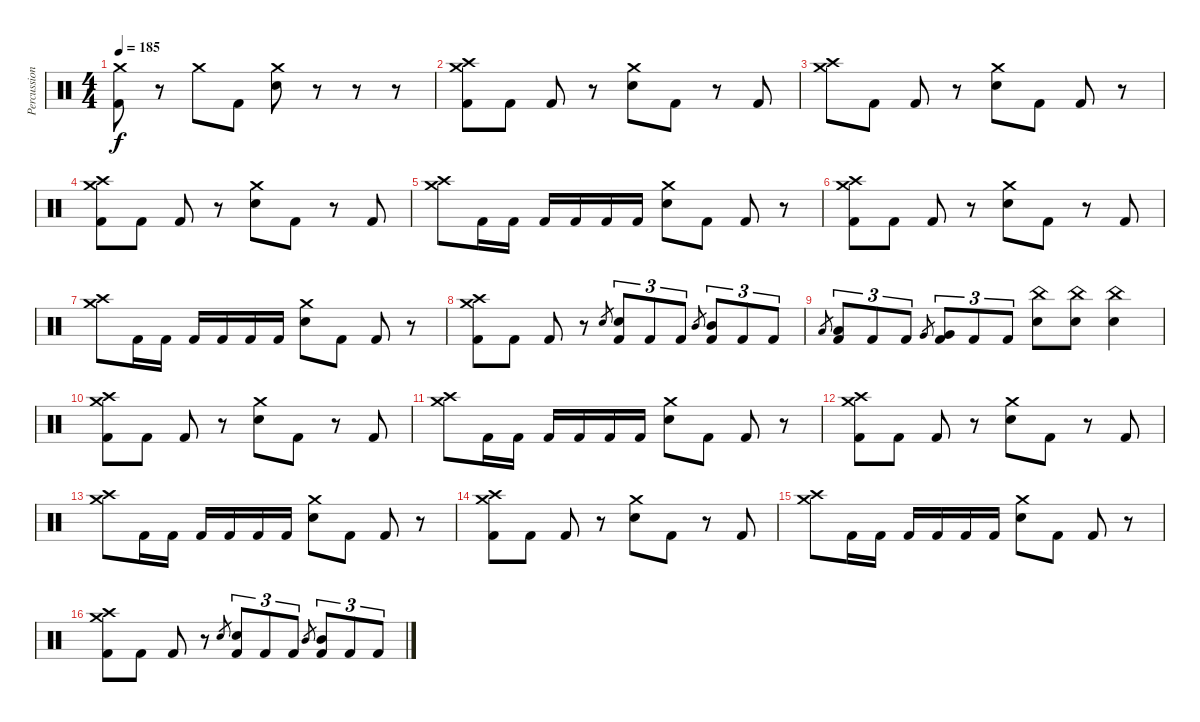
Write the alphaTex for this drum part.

\track ("Percussion" "Percussion") {instrument percussion}
\staff {score}
\articulation defaults
\ts (4 4)
\tempo 185
\clef neutral
\ks c
("Kick (hit) 2" "Crash medium (hit)").8{dy f} r.8 "Crash medium (hit)".8 "Kick (hit) 2".8 ("Electric Snare (hit)" "Crash medium (hit)").8 r.8 r.8 r.8 |
("Kick (hit) 2" "Crash medium (hit)" "Crash high (hit)").8 "Kick (hit) 2".8 "Kick (hit) 2".8 r.8 ("Electric Snare (hit)" "Crash medium (hit)").8 "Kick (hit) 2".8 r.8 "Kick (hit) 2".8 |
("Crash medium (hit)" "Crash high (hit)").8 "Kick (hit) 2".8 "Kick (hit) 2".8 r.8 ("Electric Snare (hit)" "Crash medium (hit)").8 "Kick (hit) 2".8 "Kick (hit) 2".8 r.8 |
("Kick (hit) 2" "Crash medium (hit)" "Crash high (hit)").8 "Kick (hit) 2".8 "Kick (hit) 2".8 r.8 ("Electric Snare (hit)" "Crash medium (hit)").8 "Kick (hit) 2".8 r.8 "Kick (hit) 2".8 |
("Crash medium (hit)" "Crash high (hit)").8 "Kick (hit) 2".16 "Kick (hit) 2".16 "Kick (hit) 2".16 "Kick (hit) 2".16 "Kick (hit) 2".16 "Kick (hit) 2".16 ("Electric Snare (hit)" "Crash medium (hit)").8 "Kick (hit) 2".8 "Kick (hit) 2".8 r.8 |
("Kick (hit) 2" "Crash medium (hit)" "Crash high (hit)").8 "Kick (hit) 2".8 "Kick (hit) 2".8 r.8 ("Electric Snare (hit)" "Crash medium (hit)").8 "Kick (hit) 2".8 r.8 "Kick (hit) 2".8 |
("Crash medium (hit)" "Crash high (hit)").8 "Kick (hit) 2".16 "Kick (hit) 2".16 "Kick (hit) 2".16 "Kick (hit) 2".16 "Kick (hit) 2".16 "Kick (hit) 2".16 ("Electric Snare (hit)" "Crash medium (hit)").8 "Kick (hit) 2".8 "Kick (hit) 2".8 r.8 |
("Kick (hit) 2" "Crash medium (hit)" "Crash high (hit)").8 "Kick (hit) 2".8 "Kick (hit) 2".8 r.8 "Electric Snare (hit)".8{gr} ("Kick (hit) 2" "Electric Snare (hit)").8{tu (3 2)} "Kick (hit) 2".8{tu (3 2)} "Kick (hit) 2".8{tu (3 2)} "Mid Tom (hit)".8{gr} ("Kick (hit) 2" "Mid Tom (hit)").8{tu (3 2)} "Kick (hit) 2".8{tu (3 2)} "Kick (hit) 2".8{tu (3 2)} |
"Low Tom (hit)".8{gr} ("Kick (hit) 2" "Low Tom (hit)").8{tu (3 2)} "Kick (hit) 2".8{tu (3 2)} "Kick (hit) 2".8{tu (3 2)} "Very Low Tom (hit)".8{gr} ("Kick (hit) 2" "Very Low Tom (hit)").8{tu (3 2)} "Kick (hit) 2".8{tu (3 2)} "Kick (hit) 2".8{tu (3 2)} ("Electric Snare (hit)" "China (hit)").8 ("Electric Snare (hit)" "China (hit)").8 ("Electric Snare (hit)" "China (hit)").4 |
("Kick (hit) 2" "Crash medium (hit)" "Crash high (hit)").8 "Kick (hit) 2".8 "Kick (hit) 2".8 r.8 ("Electric Snare (hit)" "Crash medium (hit)").8 "Kick (hit) 2".8 r.8 "Kick (hit) 2".8 |
("Crash medium (hit)" "Crash high (hit)").8 "Kick (hit) 2".16 "Kick (hit) 2".16 "Kick (hit) 2".16 "Kick (hit) 2".16 "Kick (hit) 2".16 "Kick (hit) 2".16 ("Electric Snare (hit)" "Crash medium (hit)").8 "Kick (hit) 2".8 "Kick (hit) 2".8 r.8 |
("Kick (hit) 2" "Crash medium (hit)" "Crash high (hit)").8 "Kick (hit) 2".8 "Kick (hit) 2".8 r.8 ("Electric Snare (hit)" "Crash medium (hit)").8 "Kick (hit) 2".8 r.8 "Kick (hit) 2".8 |
("Crash medium (hit)" "Crash high (hit)").8 "Kick (hit) 2".16 "Kick (hit) 2".16 "Kick (hit) 2".16 "Kick (hit) 2".16 "Kick (hit) 2".16 "Kick (hit) 2".16 ("Electric Snare (hit)" "Crash medium (hit)").8 "Kick (hit) 2".8 "Kick (hit) 2".8 r.8 |
("Kick (hit) 2" "Crash medium (hit)" "Crash high (hit)").8 "Kick (hit) 2".8 "Kick (hit) 2".8 r.8 ("Electric Snare (hit)" "Crash medium (hit)").8 "Kick (hit) 2".8 r.8 "Kick (hit) 2".8 |
("Crash medium (hit)" "Crash high (hit)").8 "Kick (hit) 2".16 "Kick (hit) 2".16 "Kick (hit) 2".16 "Kick (hit) 2".16 "Kick (hit) 2".16 "Kick (hit) 2".16 ("Electric Snare (hit)" "Crash medium (hit)").8 "Kick (hit) 2".8 "Kick (hit) 2".8 r.8 |
("Kick (hit) 2" "Crash medium (hit)" "Crash high (hit)").8 "Kick (hit) 2".8 "Kick (hit) 2".8 r.8 "Electric Snare (hit)".8{gr} ("Kick (hit) 2" "Electric Snare (hit)").8{tu (3 2)} "Kick (hit) 2".8{tu (3 2)} "Kick (hit) 2".8{tu (3 2)} "Mid Tom (hit)".8{gr} ("Kick (hit) 2" "Mid Tom (hit)").8{tu (3 2)} "Kick (hit) 2".8{tu (3 2)} "Kick (hit) 2".8{tu (3 2)}
